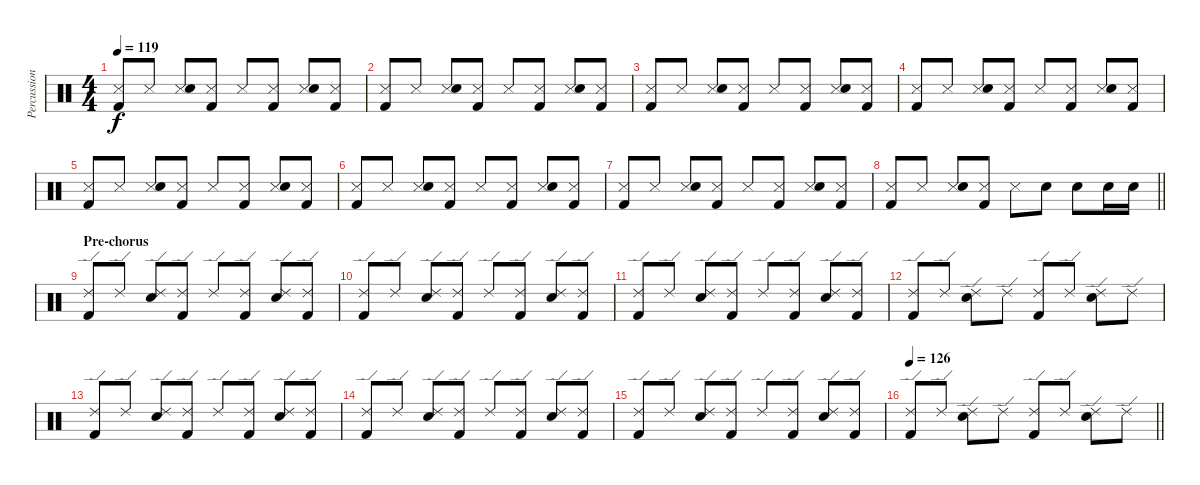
\track ("Percussion" "Percussion") {instrument percussion}
\staff {score}
\articulation defaults
\ts (4 4)
\tempo 119
\clef neutral
\ks c
("Snare (side stick) 3" "Kick (hit) 2").8{dy f} "Snare (side stick) 3".8 ("Snare (side stick) 3" "Snare (hit) 2").8 ("Snare (side stick) 3" "Kick (hit) 2").8 "Snare (side stick) 3".8 ("Snare (side stick) 3" "Kick (hit) 2").8 ("Snare (side stick) 3" "Snare (hit) 2").8 ("Snare (side stick) 3" "Kick (hit) 2").8 |
("Snare (side stick) 3" "Kick (hit) 2").8 "Snare (side stick) 3".8 ("Snare (side stick) 3" "Snare (hit) 2").8 ("Snare (side stick) 3" "Kick (hit) 2").8 "Snare (side stick) 3".8 ("Snare (side stick) 3" "Kick (hit) 2").8 ("Snare (side stick) 3" "Snare (hit) 2").8 ("Snare (side stick) 3" "Kick (hit) 2").8 |
("Snare (side stick) 3" "Kick (hit) 2").8 "Snare (side stick) 3".8 ("Snare (side stick) 3" "Snare (hit) 2").8 ("Snare (side stick) 3" "Kick (hit) 2").8 "Snare (side stick) 3".8 ("Snare (side stick) 3" "Kick (hit) 2").8 ("Snare (side stick) 3" "Snare (hit) 2").8 ("Snare (side stick) 3" "Kick (hit) 2").8 |
("Snare (side stick) 3" "Kick (hit) 2").8 "Snare (side stick) 3".8 ("Snare (side stick) 3" "Snare (hit) 2").8 ("Snare (side stick) 3" "Kick (hit) 2").8 "Snare (side stick) 3".8 ("Snare (side stick) 3" "Kick (hit) 2").8 ("Snare (side stick) 3" "Snare (hit) 2").8 ("Snare (side stick) 3" "Kick (hit) 2").8 |
("Snare (side stick) 3" "Kick (hit) 2").8 "Snare (side stick) 3".8 ("Snare (side stick) 3" "Snare (hit) 2").8 ("Snare (side stick) 3" "Kick (hit) 2").8 "Snare (side stick) 3".8 ("Snare (side stick) 3" "Kick (hit) 2").8 ("Snare (side stick) 3" "Snare (hit) 2").8 ("Snare (side stick) 3" "Kick (hit) 2").8 |
("Snare (side stick) 3" "Kick (hit) 2").8 "Snare (side stick) 3".8 ("Snare (side stick) 3" "Snare (hit) 2").8 ("Snare (side stick) 3" "Kick (hit) 2").8 "Snare (side stick) 3".8 ("Snare (side stick) 3" "Kick (hit) 2").8 ("Snare (side stick) 3" "Snare (hit) 2").8 ("Snare (side stick) 3" "Kick (hit) 2").8 |
("Snare (side stick) 3" "Kick (hit) 2").8 "Snare (side stick) 3".8 ("Snare (side stick) 3" "Snare (hit) 2").8 ("Snare (side stick) 3" "Kick (hit) 2").8 "Snare (side stick) 3".8 ("Snare (side stick) 3" "Kick (hit) 2").8 ("Snare (side stick) 3" "Snare (hit) 2").8 ("Snare (side stick) 3" "Kick (hit) 2").8 |
\barLineRight lightlight
("Snare (side stick) 3" "Kick (hit) 2").8 "Snare (side stick) 3".8 ("Snare (side stick) 3" "Snare (hit) 2").8 ("Snare (side stick) 3" "Kick (hit) 2").8 "Snare (side stick) 3".8 "Snare (hit) 2".8 "Snare (hit) 2".8 "Snare (hit) 2".16 "Snare (hit) 2".16 |
\section ("" "Pre-chorus")
("Ride (edge) 2" "Kick (hit) 2").8 "Ride (edge) 2".8 ("Ride (edge) 2" "Snare (hit) 2").8 ("Ride (edge) 2" "Kick (hit) 2").8 "Ride (edge) 2".8 ("Ride (edge) 2" "Kick (hit) 2").8 ("Ride (edge) 2" "Snare (hit) 2").8 ("Ride (edge) 2" "Kick (hit) 2").8 |
("Ride (edge) 2" "Kick (hit) 2").8 "Ride (edge) 2".8 ("Ride (edge) 2" "Snare (hit) 2").8 ("Ride (edge) 2" "Kick (hit) 2").8 "Ride (edge) 2".8 ("Ride (edge) 2" "Kick (hit) 2").8 ("Ride (edge) 2" "Snare (hit) 2").8 ("Ride (edge) 2" "Kick (hit) 2").8 |
("Ride (edge) 2" "Kick (hit) 2").8 "Ride (edge) 2".8 ("Ride (edge) 2" "Snare (hit) 2").8 ("Ride (edge) 2" "Kick (hit) 2").8 "Ride (edge) 2".8 ("Ride (edge) 2" "Kick (hit) 2").8 ("Ride (edge) 2" "Snare (hit) 2").8 ("Ride (edge) 2" "Kick (hit) 2").8 |
("Ride (edge) 2" "Kick (hit) 2").8 "Ride (edge) 2".8 ("Ride (edge) 2" "Snare (hit) 2").8 "Ride (edge) 2".8 ("Ride (edge) 2" "Kick (hit) 2").8 "Ride (edge) 2".8 ("Ride (edge) 2" "Snare (hit) 2").8 "Ride (edge) 2".8 |
("Ride (edge) 2" "Kick (hit) 2").8 "Ride (edge) 2".8 ("Ride (edge) 2" "Snare (hit) 2").8 ("Ride (edge) 2" "Kick (hit) 2").8 "Ride (edge) 2".8 ("Ride (edge) 2" "Kick (hit) 2").8 ("Ride (edge) 2" "Snare (hit) 2").8 ("Ride (edge) 2" "Kick (hit) 2").8 |
("Ride (edge) 2" "Kick (hit) 2").8 "Ride (edge) 2".8 ("Ride (edge) 2" "Snare (hit) 2").8 ("Ride (edge) 2" "Kick (hit) 2").8 "Ride (edge) 2".8 ("Ride (edge) 2" "Kick (hit) 2").8 ("Ride (edge) 2" "Snare (hit) 2").8 ("Ride (edge) 2" "Kick (hit) 2").8 |
("Ride (edge) 2" "Kick (hit) 2").8 "Ride (edge) 2".8 ("Ride (edge) 2" "Snare (hit) 2").8 ("Ride (edge) 2" "Kick (hit) 2").8 "Ride (edge) 2".8 ("Ride (edge) 2" "Kick (hit) 2").8 ("Ride (edge) 2" "Snare (hit) 2").8 ("Ride (edge) 2" "Kick (hit) 2").8 |
\tempo 126
\barLineRight lightlight
("Ride (edge) 2" "Kick (hit) 2").8 "Ride (edge) 2".8 ("Ride (edge) 2" "Snare (hit) 2").8 "Ride (edge) 2".8 ("Ride (edge) 2" "Kick (hit) 2").8 "Ride (edge) 2".8 ("Ride (edge) 2" "Snare (hit) 2").8 "Ride (edge) 2".8
